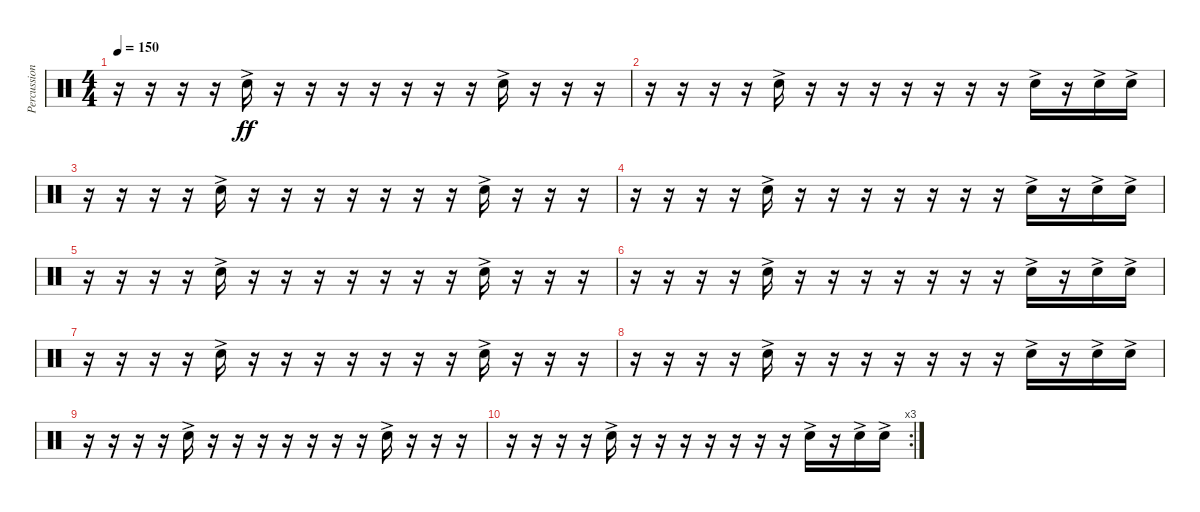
\track ("Percussion" "Percussion") {instrument percussion bank 252}
\staff {score}
\articulation defaults
\ts (4 4)
\tempo 150
\clef neutral
\ks c
r.16{dy ff} r.16 r.16 r.16 "Snare (hit) 2"{ac}.16 r.16 r.16 r.16 r.16 r.16 r.16 r.16 "Snare (hit) 2"{ac}.16 r.16 r.16 r.16 |
r.16 r.16 r.16 r.16 "Snare (hit) 2"{ac}.16 r.16 r.16 r.16 r.16 r.16 r.16 r.16 "Snare (hit) 2"{ac}.16 r.16 "Snare (hit) 2"{ac}.16 "Snare (hit) 2"{ac}.16 |
r.16 r.16 r.16 r.16 "Snare (hit) 2"{ac}.16 r.16 r.16 r.16 r.16 r.16 r.16 r.16 "Snare (hit) 2"{ac}.16 r.16 r.16 r.16 |
r.16 r.16 r.16 r.16 "Snare (hit) 2"{ac}.16 r.16 r.16 r.16 r.16 r.16 r.16 r.16 "Snare (hit) 2"{ac}.16 r.16 "Snare (hit) 2"{ac}.16 "Snare (hit) 2"{ac}.16 |
r.16 r.16 r.16 r.16 "Snare (hit) 2"{ac}.16 r.16 r.16 r.16 r.16 r.16 r.16 r.16 "Snare (hit) 2"{ac}.16 r.16 r.16 r.16 |
r.16 r.16 r.16 r.16 "Snare (hit) 2"{ac}.16 r.16 r.16 r.16 r.16 r.16 r.16 r.16 "Snare (hit) 2"{ac}.16 r.16 "Snare (hit) 2"{ac}.16 "Snare (hit) 2"{ac}.16 |
r.16 r.16 r.16 r.16 "Snare (hit) 2"{ac}.16 r.16 r.16 r.16 r.16 r.16 r.16 r.16 "Snare (hit) 2"{ac}.16 r.16 r.16 r.16 |
r.16 r.16 r.16 r.16 "Snare (hit) 2"{ac}.16 r.16 r.16 r.16 r.16 r.16 r.16 r.16 "Snare (hit) 2"{ac}.16 r.16 "Snare (hit) 2"{ac}.16 "Snare (hit) 2"{ac}.16 |
r.16 r.16 r.16 r.16 "Snare (hit) 2"{ac}.16 r.16 r.16 r.16 r.16 r.16 r.16 r.16 "Snare (hit) 2"{ac}.16 r.16 r.16 r.16 |
\rc 3
r.16 r.16 r.16 r.16 "Snare (hit) 2"{ac}.16 r.16 r.16 r.16 r.16 r.16 r.16 r.16 "Snare (hit) 2"{ac}.16 r.16 "Snare (hit) 2"{ac}.16 "Snare (hit) 2"{ac}.16
